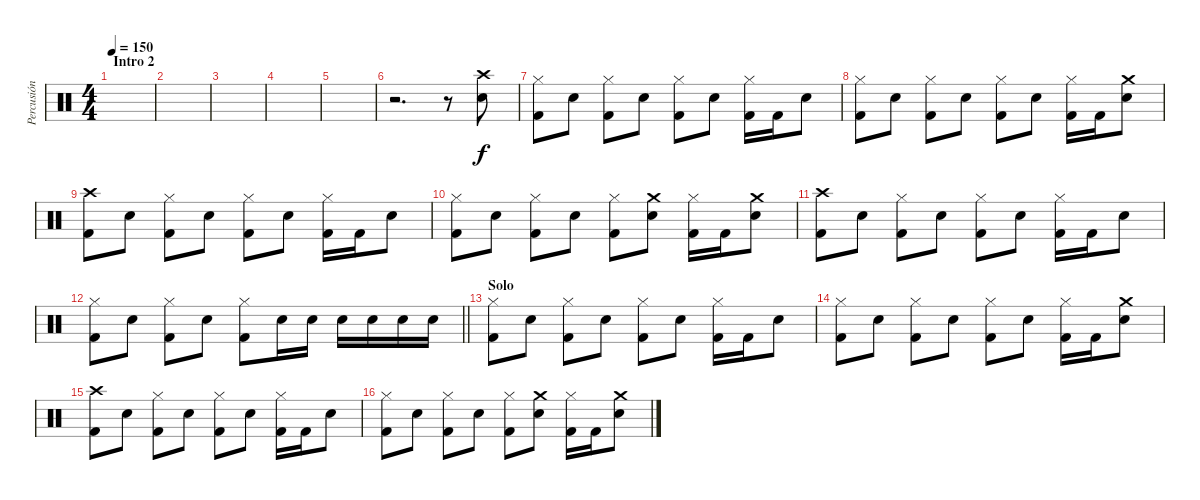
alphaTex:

\track ("Percusión" "Percusión") {instrument percussion}
\staff {score}
\articulation defaults
\ts (4 4)
\section ("" "Intro 2")
\tempo 150
\clef neutral
\ks c
|
|
|
|
|
r.2{d} r.8 ("Crash high (hit)" "Snare (hit) 2").8 |
("Hi-Hat (closed)" "Kick (hit) 2").8 "Snare (hit) 2".8 ("Hi-Hat (closed)" "Kick (hit) 2").8 "Snare (hit) 2".8 ("Hi-Hat (closed)" "Kick (hit) 2").8 "Snare (hit) 2".8 ("Hi-Hat (closed)" "Kick (hit) 2").16 "Kick (hit) 2".16 "Snare (hit) 2".8 |
("Hi-Hat (closed)" "Kick (hit) 2").8 "Snare (hit) 2".8 ("Hi-Hat (closed)" "Kick (hit) 2").8 "Snare (hit) 2".8 ("Hi-Hat (closed)" "Kick (hit) 2").8 "Snare (hit) 2".8 ("Hi-Hat (closed)" "Kick (hit) 2").16 "Kick (hit) 2".16 ("Crash medium (hit)" "Snare (hit) 2").8 |
("Crash high (hit)" "Kick (hit) 2").8 "Snare (hit) 2".8 ("Hi-Hat (closed)" "Kick (hit) 2").8 "Snare (hit) 2".8 ("Hi-Hat (closed)" "Kick (hit) 2").8 "Snare (hit) 2".8 ("Hi-Hat (closed)" "Kick (hit) 2").16 "Kick (hit) 2".16 "Snare (hit) 2".8 |
("Hi-Hat (closed)" "Kick (hit) 2").8 "Snare (hit) 2".8 ("Hi-Hat (closed)" "Kick (hit) 2").8 "Snare (hit) 2".8 ("Hi-Hat (closed)" "Kick (hit) 2").8 ("Crash medium (hit)" "Snare (hit) 2").8 ("Hi-Hat (closed)" "Kick (hit) 2").16 "Kick (hit) 2".16 ("Crash medium (hit)" "Snare (hit) 2").8 |
("Crash high (hit)" "Kick (hit) 2").8 "Snare (hit) 2".8 ("Hi-Hat (closed)" "Kick (hit) 2").8 "Snare (hit) 2".8 ("Hi-Hat (closed)" "Kick (hit) 2").8 "Snare (hit) 2".8 ("Hi-Hat (closed)" "Kick (hit) 2").16 "Kick (hit) 2".16 "Snare (hit) 2".8 |
\barLineRight lightlight
("Hi-Hat (closed)" "Kick (hit) 2").8 "Snare (hit) 2".8 ("Hi-Hat (closed)" "Kick (hit) 2").8 "Snare (hit) 2".8 ("Hi-Hat (closed)" "Kick (hit) 2").8 "Snare (hit) 2".16 "Snare (hit) 2".16 "Snare (hit) 2".16 "Snare (hit) 2".16 "Snare (hit) 2".16 "Snare (hit) 2".16 |
\section ("" "Solo")
("Hi-Hat (closed)" "Kick (hit) 2").8 "Snare (hit) 2".8 ("Hi-Hat (closed)" "Kick (hit) 2").8 "Snare (hit) 2".8 ("Hi-Hat (closed)" "Kick (hit) 2").8 "Snare (hit) 2".8 ("Hi-Hat (closed)" "Kick (hit) 2").16 "Kick (hit) 2".16 "Snare (hit) 2".8 |
("Hi-Hat (closed)" "Kick (hit) 2").8 "Snare (hit) 2".8 ("Hi-Hat (closed)" "Kick (hit) 2").8 "Snare (hit) 2".8 ("Hi-Hat (closed)" "Kick (hit) 2").8 "Snare (hit) 2".8 ("Hi-Hat (closed)" "Kick (hit) 2").16 "Kick (hit) 2".16 ("Crash medium (hit)" "Snare (hit) 2").8 |
("Crash high (hit)" "Kick (hit) 2").8 "Snare (hit) 2".8 ("Hi-Hat (closed)" "Kick (hit) 2").8 "Snare (hit) 2".8 ("Hi-Hat (closed)" "Kick (hit) 2").8 "Snare (hit) 2".8 ("Hi-Hat (closed)" "Kick (hit) 2").16 "Kick (hit) 2".16 "Snare (hit) 2".8 |
("Hi-Hat (closed)" "Kick (hit) 2").8 "Snare (hit) 2".8 ("Hi-Hat (closed)" "Kick (hit) 2").8 "Snare (hit) 2".8 ("Hi-Hat (closed)" "Kick (hit) 2").8 ("Crash medium (hit)" "Snare (hit) 2").8 ("Hi-Hat (closed)" "Kick (hit) 2").16 "Kick (hit) 2".16 ("Crash medium (hit)" "Snare (hit) 2").8
